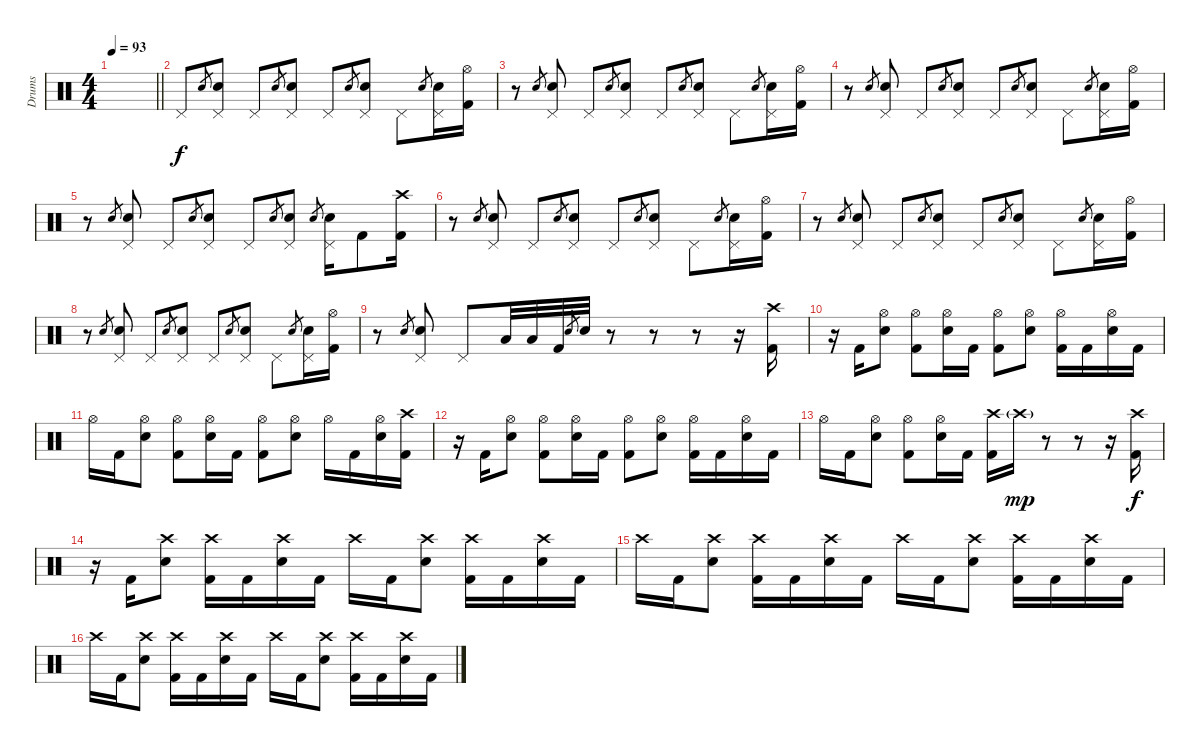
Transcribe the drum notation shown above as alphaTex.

\track ("Drums" "Drums") {instrument percussion}
\staff {score}
\articulation defaults
\ts (4 4)
\tempo 93
\clef neutral
\barLineRight lightlight
\ks c
|
"Pedal Hi-Hat (hit)".8 "Snare (hit) 2".8{gr} ("Pedal Hi-Hat (hit)" "Snare (hit) 2").8 "Pedal Hi-Hat (hit)".8 "Snare (hit) 2".8{gr} ("Pedal Hi-Hat (hit)" "Snare (hit) 2").8 "Pedal Hi-Hat (hit)".8 "Snare (hit) 2".8{gr} ("Pedal Hi-Hat (hit)" "Snare (hit) 2").8 "Pedal Hi-Hat (hit)".8 "Snare (hit) 2".8{gr} ("Pedal Hi-Hat (hit)" "Snare (hit) 2").16 ("Hi-Hat (open)" "Kick (hit) 2").16 |
r.8 "Snare (hit) 2".8{gr} ("Pedal Hi-Hat (hit)" "Snare (hit) 2").8 "Pedal Hi-Hat (hit)".8 "Snare (hit) 2".8{gr} ("Pedal Hi-Hat (hit)" "Snare (hit) 2").8 "Pedal Hi-Hat (hit)".8 "Snare (hit) 2".8{gr} ("Pedal Hi-Hat (hit)" "Snare (hit) 2").8 "Pedal Hi-Hat (hit)".8 "Snare (hit) 2".8{gr} ("Pedal Hi-Hat (hit)" "Snare (hit) 2").16 ("Hi-Hat (open)" "Kick (hit) 2").16 |
r.8 "Snare (hit) 2".8{gr} ("Pedal Hi-Hat (hit)" "Snare (hit) 2").8 "Pedal Hi-Hat (hit)".8 "Snare (hit) 2".8{gr} ("Pedal Hi-Hat (hit)" "Snare (hit) 2").8 "Pedal Hi-Hat (hit)".8 "Snare (hit) 2".8{gr} ("Pedal Hi-Hat (hit)" "Snare (hit) 2").8 "Pedal Hi-Hat (hit)".8 "Snare (hit) 2".8{gr} ("Pedal Hi-Hat (hit)" "Snare (hit) 2").16 ("Hi-Hat (open)" "Kick (hit) 2").16 |
r.8 "Snare (hit) 2".8{gr} ("Pedal Hi-Hat (hit)" "Snare (hit) 2").8 "Pedal Hi-Hat (hit)".8 "Snare (hit) 2".8{gr} ("Pedal Hi-Hat (hit)" "Snare (hit) 2").8 "Pedal Hi-Hat (hit)".8 "Snare (hit) 2".8{gr} ("Pedal Hi-Hat (hit)" "Snare (hit) 2").8 "Snare (hit) 2".8{gr} ("Pedal Hi-Hat (hit)" "Snare (hit) 2").16 "Kick (hit) 2".8 ("Crash high (hit)" "Kick (hit) 2").16 |
r.8 "Snare (hit) 2".8{gr} ("Pedal Hi-Hat (hit)" "Snare (hit) 2").8 "Pedal Hi-Hat (hit)".8 "Snare (hit) 2".8{gr} ("Pedal Hi-Hat (hit)" "Snare (hit) 2").8 "Pedal Hi-Hat (hit)".8 "Snare (hit) 2".8{gr} ("Pedal Hi-Hat (hit)" "Snare (hit) 2").8 "Pedal Hi-Hat (hit)".8 "Snare (hit) 2".8{gr} ("Pedal Hi-Hat (hit)" "Snare (hit) 2").16 ("Hi-Hat (open)" "Kick (hit) 2").16 |
r.8 "Snare (hit) 2".8{gr} ("Pedal Hi-Hat (hit)" "Snare (hit) 2").8 "Pedal Hi-Hat (hit)".8 "Snare (hit) 2".8{gr} ("Pedal Hi-Hat (hit)" "Snare (hit) 2").8 "Pedal Hi-Hat (hit)".8 "Snare (hit) 2".8{gr} ("Pedal Hi-Hat (hit)" "Snare (hit) 2").8 "Pedal Hi-Hat (hit)".8 "Snare (hit) 2".8{gr} ("Pedal Hi-Hat (hit)" "Snare (hit) 2").16 ("Hi-Hat (open)" "Kick (hit) 2").16 |
r.8 "Snare (hit) 2".8{gr} ("Pedal Hi-Hat (hit)" "Snare (hit) 2").8 "Pedal Hi-Hat (hit)".8 "Snare (hit) 2".8{gr} ("Pedal Hi-Hat (hit)" "Snare (hit) 2").8 "Pedal Hi-Hat (hit)".8 "Snare (hit) 2".8{gr} ("Pedal Hi-Hat (hit)" "Snare (hit) 2").8 "Pedal Hi-Hat (hit)".8 "Snare (hit) 2".8{gr} ("Pedal Hi-Hat (hit)" "Snare (hit) 2").16 ("Hi-Hat (open)" "Kick (hit) 2").16 |
r.8 "Snare (hit) 2".8{gr} ("Pedal Hi-Hat (hit)" "Snare (hit) 2").8 "Pedal Hi-Hat (hit)".8 "Low Tom (hit)".32 "Low Floor Tom (hit)".32 "Kick (hit) 2".32 "Snare (hit) 2".8{gr} "Snare (hit) 2".32 r.8 r.8 r.8 r.16 ("Crash high (hit)" "Kick (hit) 2").16 |
r.16 "Kick (hit) 2".16 ("Hi-Hat (open)" "Snare (hit) 2").8 ("Hi-Hat (open)" "Kick (hit) 2").8 ("Hi-Hat (open)" "Snare (hit) 2").16 "Kick (hit) 2".16 ("Hi-Hat (open)" "Kick (hit) 2").8 ("Hi-Hat (open)" "Snare (hit) 2").8 ("Hi-Hat (open)" "Kick (hit) 2").16 "Kick (hit) 2".16 ("Hi-Hat (open)" "Snare (hit) 2").16 "Kick (hit) 2".16 |
"Hi-Hat (open)".16 "Kick (hit) 2".16 ("Hi-Hat (open)" "Snare (hit) 2").8 ("Hi-Hat (open)" "Kick (hit) 2").8 ("Hi-Hat (open)" "Snare (hit) 2").16 "Kick (hit) 2".16 ("Hi-Hat (open)" "Kick (hit) 2").8 ("Hi-Hat (open)" "Snare (hit) 2").8 "Hi-Hat (open)".16 "Kick (hit) 2".16 ("Hi-Hat (open)" "Snare (hit) 2").16 ("Crash high (hit)" "Kick (hit) 2").16 |
r.16 "Kick (hit) 2".16 ("Hi-Hat (open)" "Snare (hit) 2").8 ("Hi-Hat (open)" "Kick (hit) 2").8 ("Hi-Hat (open)" "Snare (hit) 2").16 "Kick (hit) 2".16 ("Hi-Hat (open)" "Kick (hit) 2").8 ("Hi-Hat (open)" "Snare (hit) 2").8 ("Hi-Hat (open)" "Kick (hit) 2").16 "Kick (hit) 2".16 ("Hi-Hat (open)" "Snare (hit) 2").16 "Kick (hit) 2".16 |
"Hi-Hat (open)".16 "Kick (hit) 2".16 ("Hi-Hat (open)" "Snare (hit) 2").8 ("Hi-Hat (open)" "Kick (hit) 2").8 ("Hi-Hat (open)" "Snare (hit) 2").16 "Kick (hit) 2".16 ("Crash high (hit)" "Kick (hit) 2").16 "Crash high (hit)"{g}.16{dy mp volume 0} r.8 r.8 r.16 ("Crash high (hit)" "Kick (hit) 2").16{dy f volume 13} |
r.16 "Kick (hit) 2".16 ("Crash high (hit)" "Snare (hit) 2").8 ("Crash high (hit)" "Kick (hit) 2").16 "Kick (hit) 2".16 ("Crash high (hit)" "Snare (hit) 2").16 "Kick (hit) 2".16 "Crash high (hit)".16 "Kick (hit) 2".16 ("Crash high (hit)" "Snare (hit) 2").8 ("Crash high (hit)" "Kick (hit) 2").16 "Kick (hit) 2".16 ("Crash high (hit)" "Snare (hit) 2").16 "Kick (hit) 2".16 |
"Crash high (hit)".16 "Kick (hit) 2".16 ("Crash high (hit)" "Snare (hit) 2").8 ("Crash high (hit)" "Kick (hit) 2").16 "Kick (hit) 2".16 ("Crash high (hit)" "Snare (hit) 2").16 "Kick (hit) 2".16 "Crash high (hit)".16 "Kick (hit) 2".16 ("Crash high (hit)" "Snare (hit) 2").8 ("Crash high (hit)" "Kick (hit) 2").16 "Kick (hit) 2".16 ("Crash high (hit)" "Snare (hit) 2").16 "Kick (hit) 2".16 |
"Crash high (hit)".16 "Kick (hit) 2".16 ("Crash high (hit)" "Snare (hit) 2").8 ("Crash high (hit)" "Kick (hit) 2").16 "Kick (hit) 2".16 ("Crash high (hit)" "Snare (hit) 2").16 "Kick (hit) 2".16 "Crash high (hit)".16 "Kick (hit) 2".16 ("Crash high (hit)" "Snare (hit) 2").8 ("Crash high (hit)" "Kick (hit) 2").16 "Kick (hit) 2".16 ("Crash high (hit)" "Snare (hit) 2").16 "Kick (hit) 2".16
